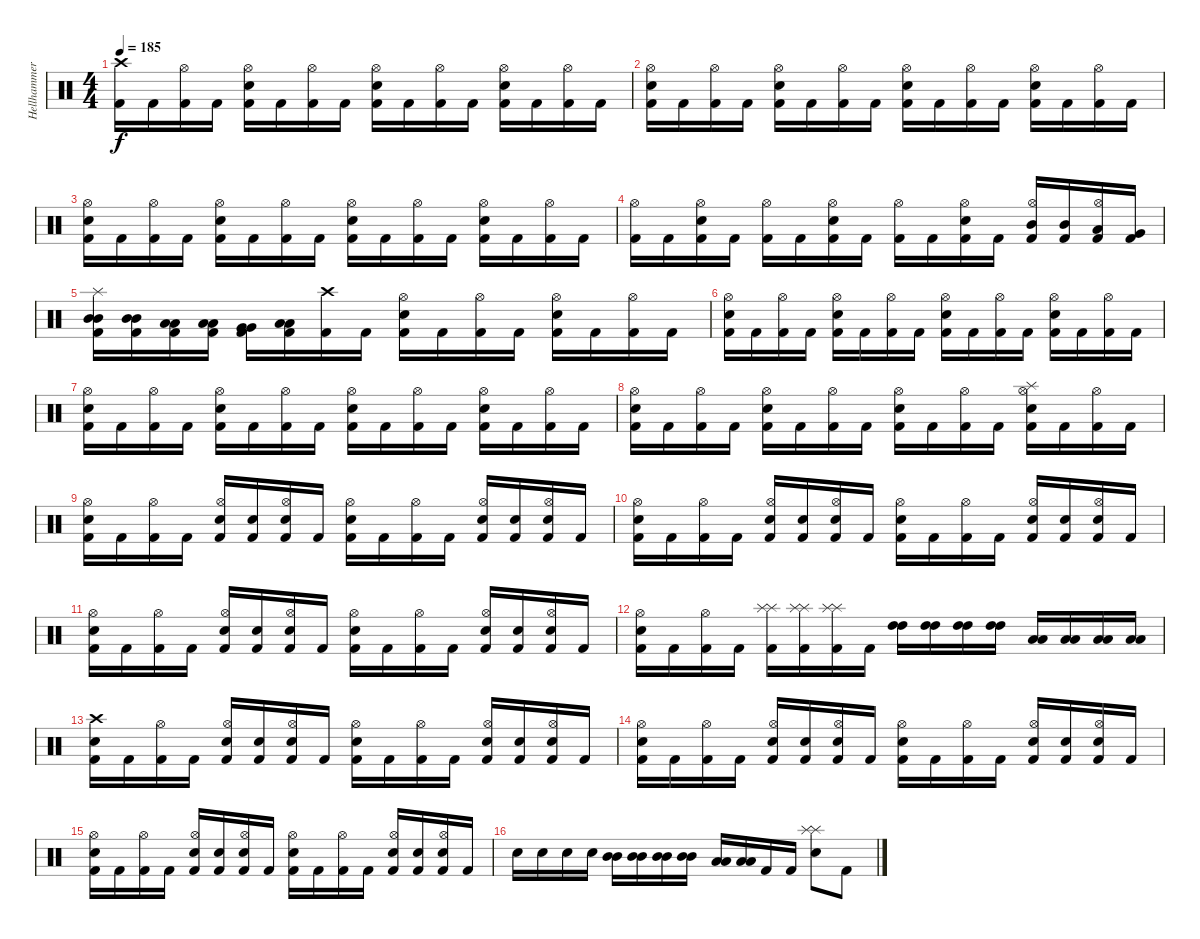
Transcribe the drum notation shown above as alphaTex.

\track ("Hellhammer" "Hellhammer") {instrument percussion}
\staff {score}
\articulation defaults
\ts (4 4)
\tempo 185
\clef neutral
\ks c
("Kick (hit) 2" "Crash high (hit)").16{dy f} "Kick (hit) 2".16 ("Kick (hit) 2" "Hi-Hat (open)").16 "Kick (hit) 2".16 ("Kick (hit) 2" "Electric Snare (hit)" "Hi-Hat (open)").16 "Kick (hit) 2".16 ("Kick (hit) 2" "Hi-Hat (open)").16 "Kick (hit) 2".16 ("Kick (hit) 2" "Electric Snare (hit)" "Hi-Hat (open)").16 "Kick (hit) 2".16 ("Kick (hit) 2" "Hi-Hat (open)").16 "Kick (hit) 2".16 ("Kick (hit) 2" "Electric Snare (hit)" "Hi-Hat (open)").16 "Kick (hit) 2".16 ("Kick (hit) 2" "Hi-Hat (open)").16 "Kick (hit) 2".16 |
("Kick (hit) 2" "Electric Snare (hit)" "Hi-Hat (open)").16 "Kick (hit) 2".16 ("Kick (hit) 2" "Hi-Hat (open)").16 "Kick (hit) 2".16 ("Kick (hit) 2" "Electric Snare (hit)" "Hi-Hat (open)").16 "Kick (hit) 2".16 ("Kick (hit) 2" "Hi-Hat (open)").16 "Kick (hit) 2".16 ("Kick (hit) 2" "Electric Snare (hit)" "Hi-Hat (open)").16 "Kick (hit) 2".16 ("Kick (hit) 2" "Hi-Hat (open)").16 "Kick (hit) 2".16 ("Kick (hit) 2" "Electric Snare (hit)" "Hi-Hat (open)").16 "Kick (hit) 2".16 ("Kick (hit) 2" "Hi-Hat (open)").16 "Kick (hit) 2".16 |
("Kick (hit) 2" "Electric Snare (hit)" "Hi-Hat (open)").16 "Kick (hit) 2".16 ("Kick (hit) 2" "Hi-Hat (open)").16 "Kick (hit) 2".16 ("Kick (hit) 2" "Electric Snare (hit)" "Hi-Hat (open)").16 "Kick (hit) 2".16 ("Kick (hit) 2" "Hi-Hat (open)").16 "Kick (hit) 2".16 ("Kick (hit) 2" "Electric Snare (hit)" "Hi-Hat (open)").16 "Kick (hit) 2".16 ("Kick (hit) 2" "Hi-Hat (open)").16 "Kick (hit) 2".16 ("Kick (hit) 2" "Electric Snare (hit)" "Hi-Hat (open)").16 "Kick (hit) 2".16 ("Kick (hit) 2" "Hi-Hat (open)").16 "Kick (hit) 2".16 |
("Kick (hit) 2" "Hi-Hat (open)").16 "Kick (hit) 2".16 ("Kick (hit) 2" "Electric Snare (hit)" "Hi-Hat (open)").16 "Kick (hit) 2".16 ("Kick (hit) 2" "Hi-Hat (open)").16 "Kick (hit) 2".16 ("Kick (hit) 2" "Electric Snare (hit)" "Hi-Hat (open)").16 "Kick (hit) 2".16 ("Kick (hit) 2" "Hi-Hat (open)").16 "Kick (hit) 2".16 ("Kick (hit) 2" "Electric Snare (hit)" "Hi-Hat (open)").16 "Kick (hit) 2".16 ("Kick (hit) 2" "Mid Tom (hit)" "Hi-Hat (open)").16 ("Kick (hit) 2" "Mid Tom (hit)").16 ("Kick (hit) 2" "Low Tom (hit)" "Hi-Hat (open)").16 ("Kick (hit) 2" "Very Low Tom (hit)").16 |
("Kick (hit) 2" "Mid Tom (hit)" "Mid Tom (hit)" "Splash (hit)").16 ("Kick (hit) 2" "Mid Tom (hit)" "Mid Tom (hit)").16 ("Kick (hit) 2" "Low Tom (hit)" "Low Tom (hit)").16 ("Kick (hit) 2" "Low Tom (hit)" "Low Tom (hit)").16 ("Kick (hit) 2" "Very Low Tom (hit)" "Very Low Tom (hit)").16 ("Kick (hit) 2" "Low Floor Tom (hit)" "Low Floor Tom (hit)").16 ("Kick (hit) 2" "Crash high (hit)").16 "Kick (hit) 2".16 ("Kick (hit) 2" "Electric Snare (hit)" "Hi-Hat (open)").16 "Kick (hit) 2".16 ("Kick (hit) 2" "Hi-Hat (open)").16 "Kick (hit) 2".16 ("Kick (hit) 2" "Electric Snare (hit)" "Hi-Hat (open)").16 "Kick (hit) 2".16 ("Kick (hit) 2" "Hi-Hat (open)").16 "Kick (hit) 2".16 |
("Kick (hit) 2" "Electric Snare (hit)" "Hi-Hat (open)").16 "Kick (hit) 2".16 ("Kick (hit) 2" "Hi-Hat (open)").16 "Kick (hit) 2".16 ("Kick (hit) 2" "Electric Snare (hit)" "Hi-Hat (open)").16 "Kick (hit) 2".16 ("Kick (hit) 2" "Hi-Hat (open)").16 "Kick (hit) 2".16 ("Kick (hit) 2" "Electric Snare (hit)" "Hi-Hat (open)").16 "Kick (hit) 2".16 ("Kick (hit) 2" "Hi-Hat (open)").16 "Kick (hit) 2".16 ("Kick (hit) 2" "Electric Snare (hit)" "Hi-Hat (open)").16 "Kick (hit) 2".16 ("Kick (hit) 2" "Hi-Hat (open)").16 "Kick (hit) 2".16 |
("Kick (hit) 2" "Electric Snare (hit)" "Hi-Hat (open)").16 "Kick (hit) 2".16 ("Kick (hit) 2" "Hi-Hat (open)").16 "Kick (hit) 2".16 ("Kick (hit) 2" "Electric Snare (hit)" "Hi-Hat (open)").16 "Kick (hit) 2".16 ("Kick (hit) 2" "Hi-Hat (open)").16 "Kick (hit) 2".16 ("Kick (hit) 2" "Electric Snare (hit)" "Hi-Hat (open)").16 "Kick (hit) 2".16 ("Kick (hit) 2" "Hi-Hat (open)").16 "Kick (hit) 2".16 ("Kick (hit) 2" "Electric Snare (hit)" "Hi-Hat (open)").16 "Kick (hit) 2".16 ("Kick (hit) 2" "Hi-Hat (open)").16 "Kick (hit) 2".16 |
("Kick (hit) 2" "Electric Snare (hit)" "Hi-Hat (open)").16 "Kick (hit) 2".16 ("Kick (hit) 2" "Hi-Hat (open)").16 "Kick (hit) 2".16 ("Kick (hit) 2" "Electric Snare (hit)" "Hi-Hat (open)").16 "Kick (hit) 2".16 ("Kick (hit) 2" "Hi-Hat (open)").16 "Kick (hit) 2".16 ("Kick (hit) 2" "Electric Snare (hit)" "Hi-Hat (open)").16 "Kick (hit) 2".16 ("Kick (hit) 2" "Hi-Hat (open)").16 "Kick (hit) 2".16 ("Kick (hit) 2" "Electric Snare (hit)" "Hi-Hat (open)" "Splash (hit)").16 "Kick (hit) 2".16 ("Kick (hit) 2" "Hi-Hat (open)").16 "Kick (hit) 2".16 |
("Kick (hit) 2" "Electric Snare (hit)" "Hi-Hat (open)").16 "Kick (hit) 2".16 ("Kick (hit) 2" "Hi-Hat (open)").16 "Kick (hit) 2".16 ("Kick (hit) 2" "Electric Snare (hit)" "Hi-Hat (open)").16 ("Kick (hit) 2" "Electric Snare (hit)").16 ("Kick (hit) 2" "Electric Snare (hit)" "Hi-Hat (open)").16 "Kick (hit) 2".16 ("Kick (hit) 2" "Electric Snare (hit)" "Hi-Hat (open)").16 "Kick (hit) 2".16 ("Kick (hit) 2" "Hi-Hat (open)").16 "Kick (hit) 2".16 ("Kick (hit) 2" "Electric Snare (hit)" "Hi-Hat (open)").16 ("Kick (hit) 2" "Electric Snare (hit)").16 ("Kick (hit) 2" "Electric Snare (hit)" "Hi-Hat (open)").16 "Kick (hit) 2".16 |
("Kick (hit) 2" "Electric Snare (hit)" "Hi-Hat (open)").16 "Kick (hit) 2".16 ("Kick (hit) 2" "Hi-Hat (open)").16 "Kick (hit) 2".16 ("Kick (hit) 2" "Electric Snare (hit)" "Hi-Hat (open)").16 ("Kick (hit) 2" "Electric Snare (hit)").16 ("Kick (hit) 2" "Electric Snare (hit)" "Hi-Hat (open)").16 "Kick (hit) 2".16 ("Kick (hit) 2" "Electric Snare (hit)" "Hi-Hat (open)").16 "Kick (hit) 2".16 ("Kick (hit) 2" "Hi-Hat (open)").16 "Kick (hit) 2".16 ("Kick (hit) 2" "Electric Snare (hit)" "Hi-Hat (open)").16 ("Kick (hit) 2" "Electric Snare (hit)").16 ("Kick (hit) 2" "Electric Snare (hit)" "Hi-Hat (open)").16 "Kick (hit) 2".16 |
("Kick (hit) 2" "Electric Snare (hit)" "Hi-Hat (open)").16 "Kick (hit) 2".16 ("Kick (hit) 2" "Hi-Hat (open)").16 "Kick (hit) 2".16 ("Kick (hit) 2" "Electric Snare (hit)" "Hi-Hat (open)").16 ("Kick (hit) 2" "Electric Snare (hit)").16 ("Kick (hit) 2" "Electric Snare (hit)" "Hi-Hat (open)").16 "Kick (hit) 2".16 ("Kick (hit) 2" "Electric Snare (hit)" "Hi-Hat (open)").16 "Kick (hit) 2".16 ("Kick (hit) 2" "Hi-Hat (open)").16 "Kick (hit) 2".16 ("Kick (hit) 2" "Electric Snare (hit)" "Hi-Hat (open)").16 ("Kick (hit) 2" "Electric Snare (hit)").16 ("Kick (hit) 2" "Electric Snare (hit)" "Hi-Hat (open)").16 "Kick (hit) 2".16 |
("Kick (hit) 2" "Electric Snare (hit)" "Hi-Hat (open)").16 "Kick (hit) 2".16 ("Kick (hit) 2" "Hi-Hat (open)").16 "Kick (hit) 2".16 ("Kick (hit) 2" "Splash (hit)" "Splash (hit)").16 ("Kick (hit) 2" "Splash (hit)" "Splash (hit)").16 ("Kick (hit) 2" "Splash (hit)" "Splash (hit)").16 "Kick (hit) 2".16 ("High Tom (hit)" "High Tom (hit)").16 ("High Tom (hit)" "High Tom (hit)").16 ("High Tom (hit)" "High Tom (hit)").16 ("High Tom (hit)" "High Tom (hit)").16 ("Low Tom (hit)" "Low Tom (hit)").16 ("Low Tom (hit)" "Low Tom (hit)").16 ("Low Tom (hit)" "Low Tom (hit)").16 ("Low Tom (hit)" "Low Tom (hit)").16 |
("Kick (hit) 2" "Electric Snare (hit)" "Crash high (hit)").16 "Kick (hit) 2".16 ("Kick (hit) 2" "Hi-Hat (open)").16 "Kick (hit) 2".16 ("Kick (hit) 2" "Electric Snare (hit)" "Hi-Hat (open)").16 ("Kick (hit) 2" "Electric Snare (hit)").16 ("Kick (hit) 2" "Electric Snare (hit)" "Hi-Hat (open)").16 "Kick (hit) 2".16 ("Kick (hit) 2" "Electric Snare (hit)" "Hi-Hat (open)").16 "Kick (hit) 2".16 ("Kick (hit) 2" "Hi-Hat (open)").16 "Kick (hit) 2".16 ("Kick (hit) 2" "Electric Snare (hit)" "Hi-Hat (open)").16 ("Kick (hit) 2" "Electric Snare (hit)").16 ("Kick (hit) 2" "Electric Snare (hit)" "Hi-Hat (open)").16 "Kick (hit) 2".16 |
("Kick (hit) 2" "Electric Snare (hit)" "Hi-Hat (open)").16 "Kick (hit) 2".16 ("Kick (hit) 2" "Hi-Hat (open)").16 "Kick (hit) 2".16 ("Kick (hit) 2" "Electric Snare (hit)" "Hi-Hat (open)").16 ("Kick (hit) 2" "Electric Snare (hit)").16 ("Kick (hit) 2" "Electric Snare (hit)" "Hi-Hat (open)").16 "Kick (hit) 2".16 ("Kick (hit) 2" "Electric Snare (hit)" "Hi-Hat (open)").16 "Kick (hit) 2".16 ("Kick (hit) 2" "Hi-Hat (open)").16 "Kick (hit) 2".16 ("Kick (hit) 2" "Electric Snare (hit)" "Hi-Hat (open)").16 ("Kick (hit) 2" "Electric Snare (hit)").16 ("Kick (hit) 2" "Electric Snare (hit)" "Hi-Hat (open)").16 "Kick (hit) 2".16 |
("Kick (hit) 2" "Electric Snare (hit)" "Hi-Hat (open)").16 "Kick (hit) 2".16 ("Kick (hit) 2" "Hi-Hat (open)").16 "Kick (hit) 2".16 ("Kick (hit) 2" "Electric Snare (hit)" "Hi-Hat (open)").16 ("Kick (hit) 2" "Electric Snare (hit)").16 ("Kick (hit) 2" "Electric Snare (hit)" "Hi-Hat (open)").16 "Kick (hit) 2".16 ("Kick (hit) 2" "Electric Snare (hit)" "Hi-Hat (open)").16 "Kick (hit) 2".16 ("Kick (hit) 2" "Hi-Hat (open)").16 "Kick (hit) 2".16 ("Kick (hit) 2" "Electric Snare (hit)" "Hi-Hat (open)").16 ("Kick (hit) 2" "Electric Snare (hit)").16 ("Kick (hit) 2" "Electric Snare (hit)" "Hi-Hat (open)").16 "Kick (hit) 2".16 |
"Electric Snare (hit)".16 "Electric Snare (hit)".16 "Electric Snare (hit)".16 "Electric Snare (hit)".16 ("Mid Tom (hit)" "Mid Tom (hit)").16 ("Mid Tom (hit)" "Mid Tom (hit)").16 ("Mid Tom (hit)" "Mid Tom (hit)").16 ("Mid Tom (hit)" "Mid Tom (hit)").16 ("Low Tom (hit)" "Low Tom (hit)").16 ("Low Tom (hit)" "Low Tom (hit)").16 "Kick (hit) 2".16 "Kick (hit) 2".16 ("Electric Snare (hit)" "Splash (hit)" "Splash (hit)").8 "Kick (hit) 2".8
